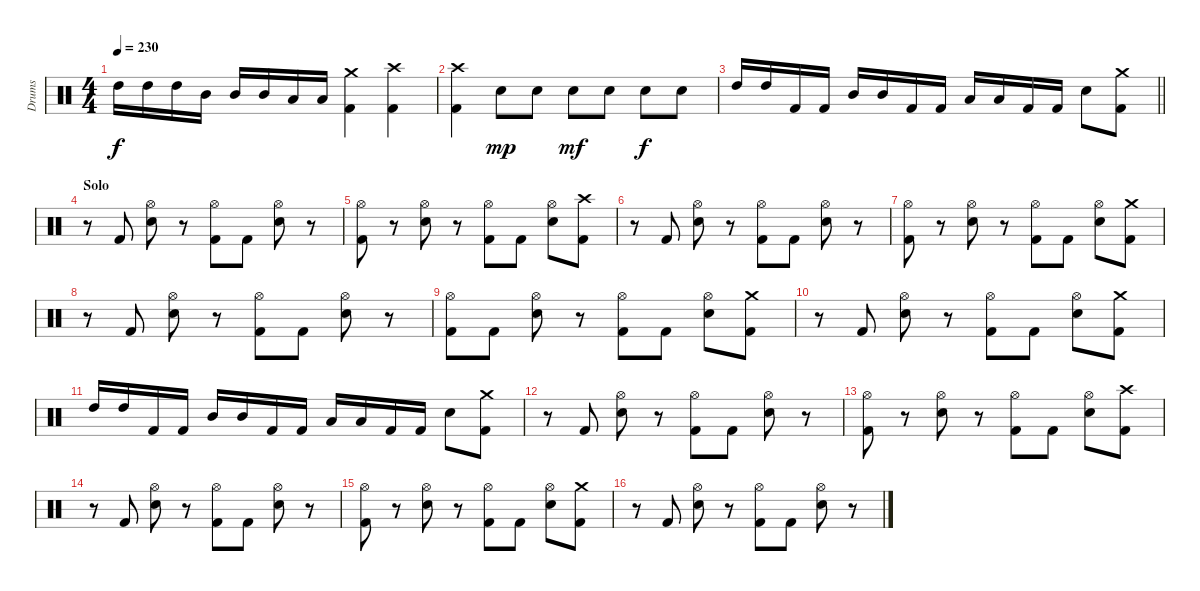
\track ("Drums" "Drums") {instrument percussion}
\staff {score}
\articulation defaults
\ts (4 4)
\tempo 230
\clef neutral
\ks c "High Tom (hit)".16{dy f} "High Tom (hit)".16 "High Tom (hit)".16 "Mid Tom (hit)".16 "Mid Tom (hit)".16 "Mid Tom (hit)".16 "Low Tom (hit)".16 "Low Tom (hit)".16
("Crash medium (hit)" "Kick (hit) 2").4 ("Crash high (hit)" "Kick (hit) 2").4 |
("Crash high (hit)" "Kick (hit) 2").4 "Electric Snare (hit)".8{dy mp} "Electric Snare (hit)".8 "Electric Snare (hit)".8{dy mf} "Electric Snare (hit)".8 "Electric Snare (hit)".8{dy f} "Electric Snare (hit)".8 |
\barLineRight lightlight "High Tom (hit)".16 "High Tom (hit)".16 "Kick (hit) 2".16 "Kick (hit) 2".16 "Mid Tom (hit)".16 "Mid Tom (hit)".16 "Kick (hit) 2".16 "Kick (hit) 2".16 "Low Tom (hit)".16 "Low Tom (hit)".16 "Kick (hit) 2".16 "Kick (hit) 2".16 "Electric Snare (hit)".8
("Crash medium (hit)" "Kick (hit) 2").8 |
\section ("" "Solo")
r.8 "Kick (hit) 2".8 ("Hi-Hat (open)" "Electric Snare (hit)").8 r.8 ("Hi-Hat (open)" "Kick (hit) 2").8 "Kick (hit) 2".8 ("Hi-Hat (open)" "Electric Snare (hit)").8 r.8 |
("Hi-Hat (open)" "Kick (hit) 2").8 r.8 ("Hi-Hat (open)" "Electric Snare (hit)").8 r.8 ("Hi-Hat (open)" "Kick (hit) 2").8 "Kick (hit) 2".8 ("Hi-Hat (open)" "Electric Snare (hit)").8 ("Crash high (hit)" "Kick (hit) 2").8 |
r.8 "Kick (hit) 2".8 ("Hi-Hat (open)" "Electric Snare (hit)").8 r.8 ("Hi-Hat (open)" "Kick (hit) 2").8 "Kick (hit) 2".8 ("Hi-Hat (open)" "Electric Snare (hit)").8 r.8 |
("Hi-Hat (open)" "Kick (hit) 2").8 r.8 ("Hi-Hat (open)" "Electric Snare (hit)").8 r.8 ("Hi-Hat (open)" "Kick (hit) 2").8 "Kick (hit) 2".8 ("Hi-Hat (open)" "Electric Snare (hit)").8 ("Crash medium (hit)" "Kick (hit) 2").8 |
r.8 "Kick (hit) 2".8 ("Hi-Hat (open)" "Electric Snare (hit)").8 r.8 ("Hi-Hat (open)" "Kick (hit) 2").8 "Kick (hit) 2".8 ("Hi-Hat (open)" "Electric Snare (hit)").8 r.8 |
("Hi-Hat (open)" "Kick (hit) 2").8 "Kick (hit) 2".8 ("Hi-Hat (open)" "Electric Snare (hit)").8 r.8 ("Hi-Hat (open)" "Kick (hit) 2").8 "Kick (hit) 2".8 ("Hi-Hat (open)" "Electric Snare (hit)").8 ("Crash medium (hit)" "Kick (hit) 2").8 |
r.8 "Kick (hit) 2".8 ("Hi-Hat (open)" "Electric Snare (hit)").8 r.8 ("Hi-Hat (open)" "Kick (hit) 2").8 "Kick (hit) 2".8 ("Hi-Hat (open)" "Electric Snare (hit)").8 ("Crash medium (hit)" "Kick (hit) 2").8 |
"High Tom (hit)".16 "High Tom (hit)".16 "Kick (hit) 2".16 "Kick (hit) 2".16 "Mid Tom (hit)".16 "Mid Tom (hit)".16 "Kick (hit) 2".16 "Kick (hit) 2".16 "Low Tom (hit)".16 "Low Tom (hit)".16 "Kick (hit) 2".16 "Kick (hit) 2".16 "Electric Snare (hit)".8 ("Crash medium (hit)" "Kick (hit) 2").8 |
r.8 "Kick (hit) 2".8 ("Hi-Hat (open)" "Electric Snare (hit)").8 r.8 ("Hi-Hat (open)" "Kick (hit) 2").8 "Kick (hit) 2".8 ("Hi-Hat (open)" "Electric Snare (hit)").8 r.8 |
("Hi-Hat (open)" "Kick (hit) 2").8 r.8 ("Hi-Hat (open)" "Electric Snare (hit)").8 r.8 ("Hi-Hat (open)" "Kick (hit) 2").8 "Kick (hit) 2".8 ("Hi-Hat (open)" "Electric Snare (hit)").8 ("Crash high (hit)" "Kick (hit) 2").8 |
r.8 "Kick (hit) 2".8 ("Hi-Hat (open)" "Electric Snare (hit)").8 r.8 ("Hi-Hat (open)" "Kick (hit) 2").8 "Kick (hit) 2".8 ("Hi-Hat (open)" "Electric Snare (hit)").8 r.8 |
("Hi-Hat (open)" "Kick (hit) 2").8 r.8 ("Hi-Hat (open)" "Electric Snare (hit)").8 r.8 ("Hi-Hat (open)" "Kick (hit) 2").8 "Kick (hit) 2".8 ("Hi-Hat (open)" "Electric Snare (hit)").8 ("Crash medium (hit)" "Kick (hit) 2").8 |
r.8 "Kick (hit) 2".8 ("Hi-Hat (open)" "Electric Snare (hit)").8 r.8 ("Hi-Hat (open)" "Kick (hit) 2").8 "Kick (hit) 2".8 ("Hi-Hat (open)" "Electric Snare (hit)").8 r.8
